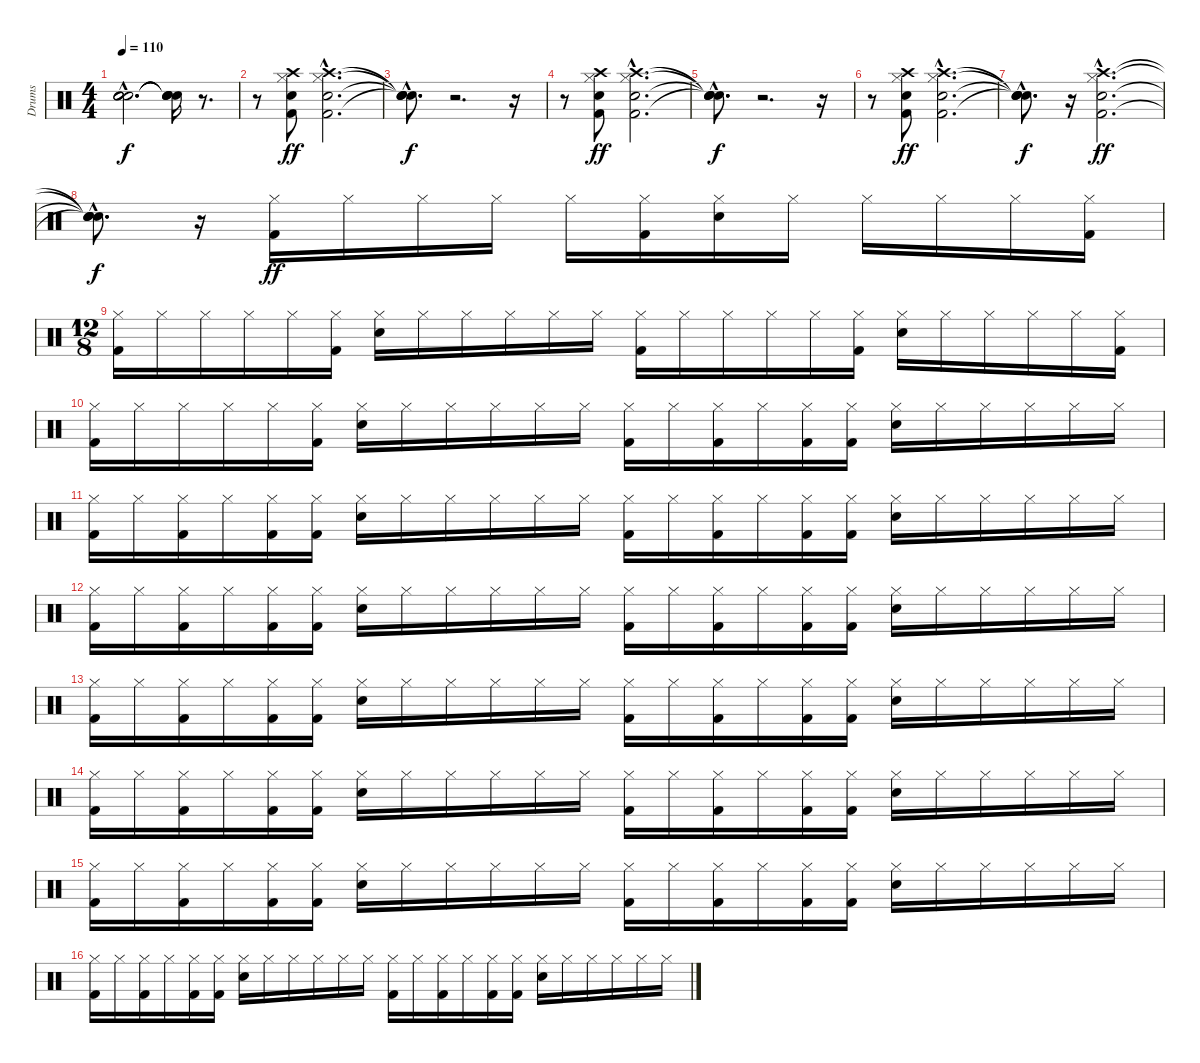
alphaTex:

\track ("Drums" "Drums") {instrument percussion}
\staff {score}
\articulation defaults
\ts (4 4)
\tempo 110
\clef neutral
\ks c
("Snare (hit)"{hac t} "Snare (hit)"{hac t} "Snare (hit)"{hac t} "Snare (hit)"{hac t}).2{d dy f} ("Snare (hit)"{t} "Snare (hit)"{t} "Snare (hit)"{t} "Snare (hit)"{t}).16 r.8{d} |
r.8 ("Kick (hit) 2" "Snare (hit) 2" "Hi-Hat (closed)" "Crash high (hit)").8{dy ff} ("Kick (hit) 2"{hac} "Snare (hit) 2"{hac} "Hi-Hat (closed)"{hac} "Crash high (hit)"{hac}).2{d} |
("Snare (hit)"{hac t} "Snare (hit)"{hac t} "Snare (hit)"{hac t} "Snare (hit)"{hac t}).8{d dy f} r.2{d} r.16 |
r.8 ("Kick (hit) 2" "Snare (hit) 2" "Hi-Hat (closed)" "Crash high (hit)").8{dy ff} ("Kick (hit) 2"{hac} "Snare (hit) 2"{hac} "Hi-Hat (closed)"{hac} "Crash high (hit)"{hac}).2{d} |
("Snare (hit)"{hac t} "Snare (hit)"{hac t} "Snare (hit)"{hac t} "Snare (hit)"{hac t}).8{d dy f} r.2{d} r.16 |
r.8 ("Kick (hit) 2" "Snare (hit) 2" "Hi-Hat (closed)" "Crash high (hit)").8{dy ff} ("Kick (hit) 2"{hac} "Snare (hit) 2"{hac} "Hi-Hat (closed)"{hac} "Crash high (hit)"{hac}).2{d} |
("Snare (hit)"{hac t} "Snare (hit)"{hac t} "Snare (hit)"{hac t} "Snare (hit)"{hac t}).8{d dy f} r.16 ("Kick (hit) 2"{hac} "Snare (hit) 2"{hac} "Hi-Hat (closed)"{hac} "Crash high (hit)"{hac}).2{d dy ff} |
("Snare (hit)"{hac t} "Snare (hit)"{hac t} "Snare (hit)"{hac t} "Snare (hit)"{hac t}).8{d dy f} r.16 ("Kick (hit) 2" "Hi-Hat (closed)").16{dy ff} "Hi-Hat (closed)".16 "Hi-Hat (closed)".16 "Hi-Hat (closed)".16 "Hi-Hat (closed)".16 ("Kick (hit) 2" "Hi-Hat (closed)").16 ("Snare (hit) 2" "Hi-Hat (closed)").16 "Hi-Hat (closed)".16 "Hi-Hat (closed)".16 "Hi-Hat (closed)".16 "Hi-Hat (closed)".16 ("Kick (hit) 2" "Hi-Hat (closed)").16 |
\ts (12 8)
("Kick (hit) 2" "Hi-Hat (closed)").16 "Hi-Hat (closed)".16 "Hi-Hat (closed)".16 "Hi-Hat (closed)".16 "Hi-Hat (closed)".16 ("Kick (hit) 2" "Hi-Hat (closed)").16 ("Snare (hit) 2" "Hi-Hat (closed)").16 "Hi-Hat (closed)".16 "Hi-Hat (closed)".16 "Hi-Hat (closed)".16 "Hi-Hat (closed)".16 "Hi-Hat (closed)".16 ("Kick (hit) 2" "Hi-Hat (closed)").16 "Hi-Hat (closed)".16 "Hi-Hat (closed)".16 "Hi-Hat (closed)".16 "Hi-Hat (closed)".16 ("Kick (hit) 2" "Hi-Hat (closed)").16 ("Snare (hit) 2" "Hi-Hat (closed)").16 "Hi-Hat (closed)".16 "Hi-Hat (closed)".16 "Hi-Hat (closed)".16 "Hi-Hat (closed)".16 ("Kick (hit) 2" "Hi-Hat (closed)").16 |
("Kick (hit) 2" "Hi-Hat (closed)").16 "Hi-Hat (closed)".16 "Hi-Hat (closed)".16 "Hi-Hat (closed)".16 "Hi-Hat (closed)".16 ("Kick (hit) 2" "Hi-Hat (closed)").16 ("Snare (hit) 2" "Hi-Hat (closed)").16 "Hi-Hat (closed)".16 "Hi-Hat (closed)".16 "Hi-Hat (closed)".16 "Hi-Hat (closed)".16 "Hi-Hat (closed)".16 ("Kick (hit) 2" "Hi-Hat (closed)").16 "Hi-Hat (closed)".16 ("Kick (hit) 2" "Hi-Hat (closed)").16 "Hi-Hat (closed)".16 ("Kick (hit) 2" "Hi-Hat (closed)").16 ("Kick (hit) 2" "Hi-Hat (closed)").16 ("Snare (hit) 2" "Hi-Hat (closed)").16 "Hi-Hat (closed)".16 "Hi-Hat (closed)".16 "Hi-Hat (closed)".16 "Hi-Hat (closed)".16 "Hi-Hat (closed)".16 |
("Kick (hit) 2" "Hi-Hat (closed)").16 "Hi-Hat (closed)".16 ("Kick (hit) 2" "Hi-Hat (closed)").16 "Hi-Hat (closed)".16 ("Kick (hit) 2" "Hi-Hat (closed)").16 ("Kick (hit) 2" "Hi-Hat (closed)").16 ("Snare (hit) 2" "Hi-Hat (closed)").16 "Hi-Hat (closed)".16 "Hi-Hat (closed)".16 "Hi-Hat (closed)".16 "Hi-Hat (closed)".16 "Hi-Hat (closed)".16 ("Kick (hit) 2" "Hi-Hat (closed)").16 "Hi-Hat (closed)".16 ("Kick (hit) 2" "Hi-Hat (closed)").16 "Hi-Hat (closed)".16 ("Kick (hit) 2" "Hi-Hat (closed)").16 ("Kick (hit) 2" "Hi-Hat (closed)").16 ("Snare (hit) 2" "Hi-Hat (closed)").16 "Hi-Hat (closed)".16 "Hi-Hat (closed)".16 "Hi-Hat (closed)".16 "Hi-Hat (closed)".16 "Hi-Hat (closed)".16 |
("Kick (hit) 2" "Hi-Hat (closed)").16 "Hi-Hat (closed)".16 ("Kick (hit) 2" "Hi-Hat (closed)").16 "Hi-Hat (closed)".16 ("Kick (hit) 2" "Hi-Hat (closed)").16 ("Kick (hit) 2" "Hi-Hat (closed)").16 ("Snare (hit) 2" "Hi-Hat (closed)").16 "Hi-Hat (closed)".16 "Hi-Hat (closed)".16 "Hi-Hat (closed)".16 "Hi-Hat (closed)".16 "Hi-Hat (closed)".16 ("Kick (hit) 2" "Hi-Hat (closed)").16 "Hi-Hat (closed)".16 ("Kick (hit) 2" "Hi-Hat (closed)").16 "Hi-Hat (closed)".16 ("Kick (hit) 2" "Hi-Hat (closed)").16 ("Kick (hit) 2" "Hi-Hat (closed)").16 ("Snare (hit) 2" "Hi-Hat (closed)").16 "Hi-Hat (closed)".16 "Hi-Hat (closed)".16 "Hi-Hat (closed)".16 "Hi-Hat (closed)".16 "Hi-Hat (closed)".16 |
("Kick (hit) 2" "Hi-Hat (closed)").16 "Hi-Hat (closed)".16 ("Kick (hit) 2" "Hi-Hat (closed)").16 "Hi-Hat (closed)".16 ("Kick (hit) 2" "Hi-Hat (closed)").16 ("Kick (hit) 2" "Hi-Hat (closed)").16 ("Snare (hit) 2" "Hi-Hat (closed)").16 "Hi-Hat (closed)".16 "Hi-Hat (closed)".16 "Hi-Hat (closed)".16 "Hi-Hat (closed)".16 "Hi-Hat (closed)".16 ("Kick (hit) 2" "Hi-Hat (closed)").16 "Hi-Hat (closed)".16 ("Kick (hit) 2" "Hi-Hat (closed)").16 "Hi-Hat (closed)".16 ("Kick (hit) 2" "Hi-Hat (closed)").16 ("Kick (hit) 2" "Hi-Hat (closed)").16 ("Snare (hit) 2" "Hi-Hat (closed)").16 "Hi-Hat (closed)".16 "Hi-Hat (closed)".16 "Hi-Hat (closed)".16 "Hi-Hat (closed)".16 "Hi-Hat (closed)".16 |
("Kick (hit) 2" "Hi-Hat (closed)").16 "Hi-Hat (closed)".16 ("Kick (hit) 2" "Hi-Hat (closed)").16 "Hi-Hat (closed)".16 ("Kick (hit) 2" "Hi-Hat (closed)").16 ("Kick (hit) 2" "Hi-Hat (closed)").16 ("Snare (hit) 2" "Hi-Hat (closed)").16 "Hi-Hat (closed)".16 "Hi-Hat (closed)".16 "Hi-Hat (closed)".16 "Hi-Hat (closed)".16 "Hi-Hat (closed)".16 ("Kick (hit) 2" "Hi-Hat (closed)").16 "Hi-Hat (closed)".16 ("Kick (hit) 2" "Hi-Hat (closed)").16 "Hi-Hat (closed)".16 ("Kick (hit) 2" "Hi-Hat (closed)").16 ("Kick (hit) 2" "Hi-Hat (closed)").16 ("Snare (hit) 2" "Hi-Hat (closed)").16 "Hi-Hat (closed)".16 "Hi-Hat (closed)".16 "Hi-Hat (closed)".16 "Hi-Hat (closed)".16 "Hi-Hat (closed)".16 |
("Kick (hit) 2" "Hi-Hat (closed)").16 "Hi-Hat (closed)".16 ("Kick (hit) 2" "Hi-Hat (closed)").16 "Hi-Hat (closed)".16 ("Kick (hit) 2" "Hi-Hat (closed)").16 ("Kick (hit) 2" "Hi-Hat (closed)").16 ("Snare (hit) 2" "Hi-Hat (closed)").16 "Hi-Hat (closed)".16 "Hi-Hat (closed)".16 "Hi-Hat (closed)".16 "Hi-Hat (closed)".16 "Hi-Hat (closed)".16 ("Kick (hit) 2" "Hi-Hat (closed)").16 "Hi-Hat (closed)".16 ("Kick (hit) 2" "Hi-Hat (closed)").16 "Hi-Hat (closed)".16 ("Kick (hit) 2" "Hi-Hat (closed)").16 ("Kick (hit) 2" "Hi-Hat (closed)").16 ("Snare (hit) 2" "Hi-Hat (closed)").16 "Hi-Hat (closed)".16 "Hi-Hat (closed)".16 "Hi-Hat (closed)".16 "Hi-Hat (closed)".16 "Hi-Hat (closed)".16 |
("Kick (hit) 2" "Hi-Hat (closed)").16 "Hi-Hat (closed)".16 ("Kick (hit) 2" "Hi-Hat (closed)").16 "Hi-Hat (closed)".16 ("Kick (hit) 2" "Hi-Hat (closed)").16 ("Kick (hit) 2" "Hi-Hat (closed)").16 ("Snare (hit) 2" "Hi-Hat (closed)").16 "Hi-Hat (closed)".16 "Hi-Hat (closed)".16 "Hi-Hat (closed)".16 "Hi-Hat (closed)".16 "Hi-Hat (closed)".16 ("Kick (hit) 2" "Hi-Hat (closed)").16 "Hi-Hat (closed)".16 ("Kick (hit) 2" "Hi-Hat (closed)").16 "Hi-Hat (closed)".16 ("Kick (hit) 2" "Hi-Hat (closed)").16 ("Kick (hit) 2" "Hi-Hat (closed)").16 ("Snare (hit) 2" "Hi-Hat (closed)").16 "Hi-Hat (closed)".16 "Hi-Hat (closed)".16 "Hi-Hat (closed)".16 "Hi-Hat (closed)".16 "Hi-Hat (closed)".16
